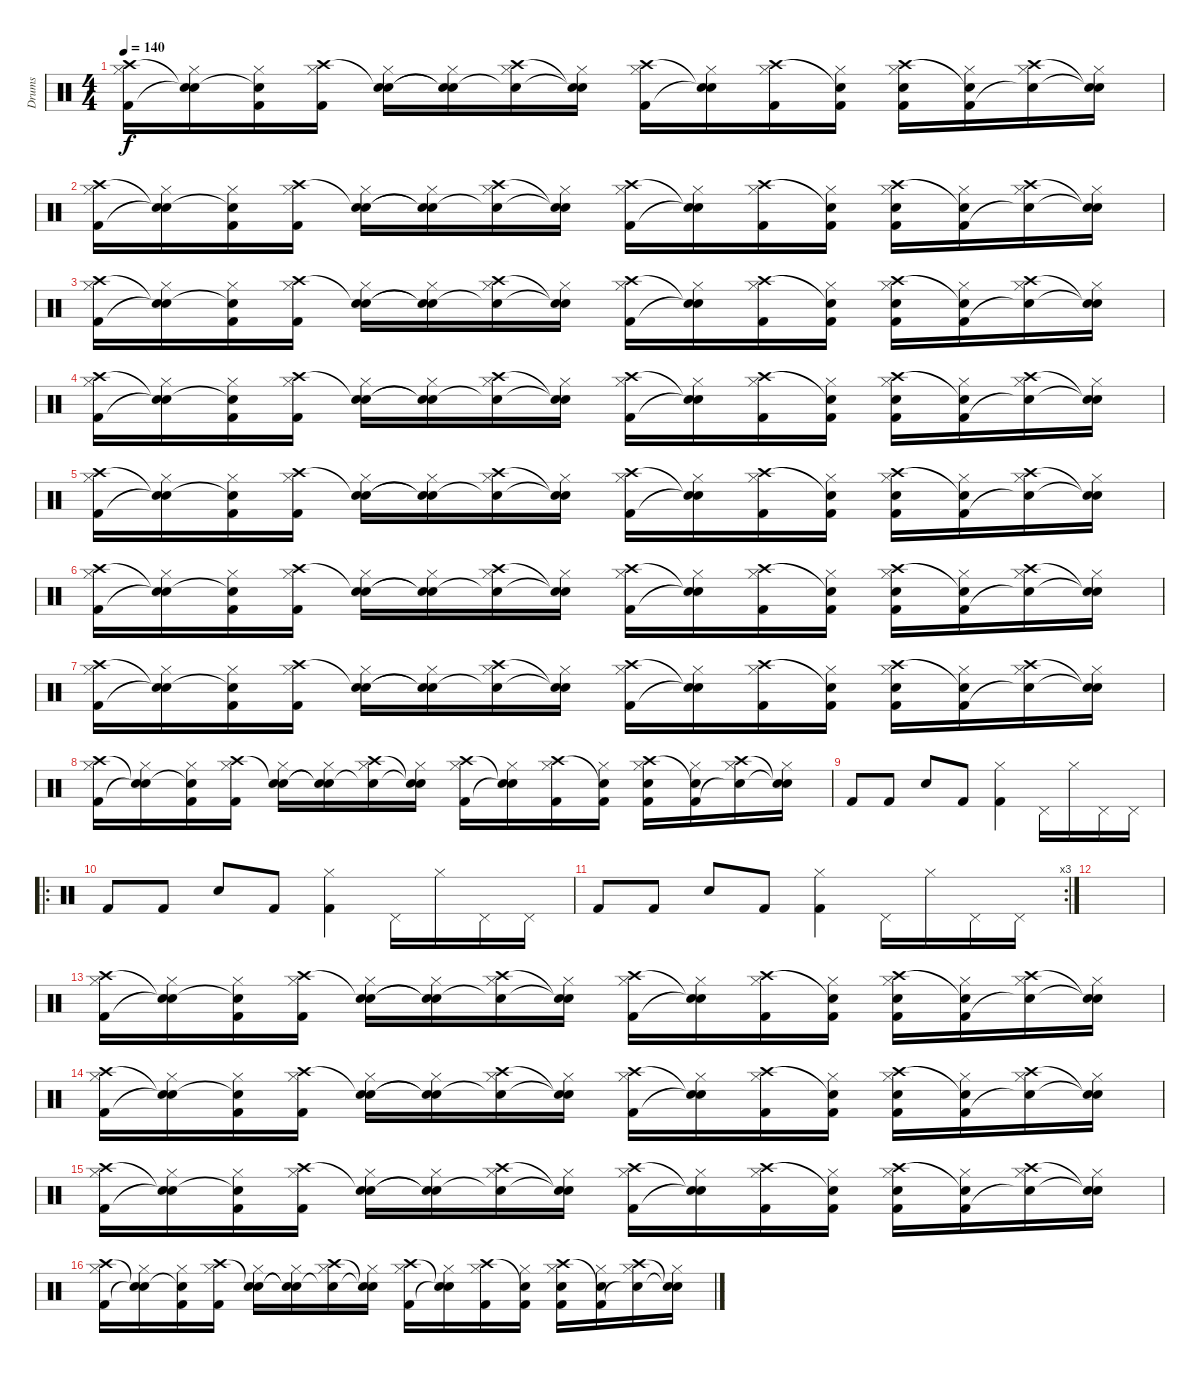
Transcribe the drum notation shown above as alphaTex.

\track ("Drums" "Drums") {instrument percussion}
\staff {score}
\articulation defaults
\ts (4 4)
\tempo 140
\clef neutral
\ks c
("Crash high (hit)" "Hi-Hat (closed)" "Kick (hit) 2").16{dy f} ("Snare (hit)"{t} "Hi-Hat (closed)" "Snare (hit)"{t}).16 ("Snare (hit)"{t} "Hi-Hat (closed)" "Kick (hit) 2").16 ("Crash high (hit)" "Hi-Hat (closed)" "Kick (hit) 2").16 ("Snare (hit)"{t} "Hi-Hat (closed)" "Electric Snare (hit)").16 ("Snare (hit)"{t} "Hi-Hat (closed)" "Snare (hit)"{t}).16 ("Crash high (hit)" "Hi-Hat (closed)" "Snare (hit)"{t}).16 ("Snare (hit)"{t} "Hi-Hat (closed)" "Snare (hit)"{t}).16 ("Crash high (hit)" "Hi-Hat (closed)" "Kick (hit) 2").16 ("Snare (hit)"{t} "Hi-Hat (closed)" "Snare (hit)"{t}).16 ("Crash high (hit)" "Hi-Hat (closed)" "Kick (hit) 2").16 ("Snare (hit)"{t} "Hi-Hat (closed)" "Kick (hit) 2").16 ("Crash high (hit)" "Hi-Hat (closed)" "Snare (hit) 2" "Kick (hit) 2").16 ("Snare (hit)"{t} "Hi-Hat (closed)" "Kick (hit) 2").16 ("Crash high (hit)" "Hi-Hat (closed)" "Snare (hit)"{t}).16 ("Snare (hit)"{t} "Hi-Hat (closed)" "Snare (hit)"{t}).16 |
("Crash high (hit)" "Hi-Hat (closed)" "Kick (hit) 2").16 ("Snare (hit)"{t} "Hi-Hat (closed)" "Snare (hit)"{t}).16 ("Snare (hit)"{t} "Hi-Hat (closed)" "Kick (hit) 2").16 ("Crash high (hit)" "Hi-Hat (closed)" "Kick (hit) 2").16 ("Snare (hit)"{t} "Hi-Hat (closed)" "Electric Snare (hit)").16 ("Snare (hit)"{t} "Hi-Hat (closed)" "Snare (hit)"{t}).16 ("Crash high (hit)" "Hi-Hat (closed)" "Snare (hit)"{t}).16 ("Snare (hit)"{t} "Hi-Hat (closed)" "Snare (hit)"{t}).16 ("Crash high (hit)" "Hi-Hat (closed)" "Kick (hit) 2").16 ("Snare (hit)"{t} "Hi-Hat (closed)" "Snare (hit)"{t}).16 ("Crash high (hit)" "Hi-Hat (closed)" "Kick (hit) 2").16 ("Snare (hit)"{t} "Hi-Hat (closed)" "Kick (hit) 2").16 ("Crash high (hit)" "Hi-Hat (closed)" "Snare (hit) 2" "Kick (hit) 2").16 ("Snare (hit)"{t} "Hi-Hat (closed)" "Kick (hit) 2").16 ("Crash high (hit)" "Hi-Hat (closed)" "Snare (hit)"{t}).16 ("Snare (hit)"{t} "Hi-Hat (closed)" "Snare (hit)"{t}).16 |
("Crash high (hit)" "Hi-Hat (closed)" "Kick (hit) 2").16 ("Snare (hit)"{t} "Hi-Hat (closed)" "Snare (hit)"{t}).16 ("Snare (hit)"{t} "Hi-Hat (closed)" "Kick (hit) 2").16 ("Crash high (hit)" "Hi-Hat (closed)" "Kick (hit) 2").16 ("Snare (hit)"{t} "Hi-Hat (closed)" "Electric Snare (hit)").16 ("Snare (hit)"{t} "Hi-Hat (closed)" "Snare (hit)"{t}).16 ("Crash high (hit)" "Hi-Hat (closed)" "Snare (hit)"{t}).16 ("Snare (hit)"{t} "Hi-Hat (closed)" "Snare (hit)"{t}).16 ("Crash high (hit)" "Hi-Hat (closed)" "Kick (hit) 2").16 ("Snare (hit)"{t} "Hi-Hat (closed)" "Snare (hit)"{t}).16 ("Crash high (hit)" "Hi-Hat (closed)" "Kick (hit) 2").16 ("Snare (hit)"{t} "Hi-Hat (closed)" "Kick (hit) 2").16 ("Crash high (hit)" "Hi-Hat (closed)" "Snare (hit) 2" "Kick (hit) 2").16 ("Snare (hit)"{t} "Hi-Hat (closed)" "Kick (hit) 2").16 ("Crash high (hit)" "Hi-Hat (closed)" "Snare (hit)"{t}).16 ("Snare (hit)"{t} "Hi-Hat (closed)" "Snare (hit)"{t}).16 |
("Crash high (hit)" "Hi-Hat (closed)" "Kick (hit) 2").16 ("Snare (hit)"{t} "Hi-Hat (closed)" "Snare (hit)"{t}).16 ("Snare (hit)"{t} "Hi-Hat (closed)" "Kick (hit) 2").16 ("Crash high (hit)" "Hi-Hat (closed)" "Kick (hit) 2").16 ("Snare (hit)"{t} "Hi-Hat (closed)" "Electric Snare (hit)").16 ("Snare (hit)"{t} "Hi-Hat (closed)" "Snare (hit)"{t}).16 ("Crash high (hit)" "Hi-Hat (closed)" "Snare (hit)"{t}).16 ("Snare (hit)"{t} "Hi-Hat (closed)" "Snare (hit)"{t}).16 ("Crash high (hit)" "Hi-Hat (closed)" "Kick (hit) 2").16 ("Snare (hit)"{t} "Hi-Hat (closed)" "Snare (hit)"{t}).16 ("Crash high (hit)" "Hi-Hat (closed)" "Kick (hit) 2").16 ("Snare (hit)"{t} "Hi-Hat (closed)" "Kick (hit) 2").16 ("Crash high (hit)" "Hi-Hat (closed)" "Snare (hit) 2" "Kick (hit) 2").16 ("Snare (hit)"{t} "Hi-Hat (closed)" "Kick (hit) 2").16 ("Crash high (hit)" "Hi-Hat (closed)" "Snare (hit)"{t}).16 ("Snare (hit)"{t} "Hi-Hat (closed)" "Snare (hit)"{t}).16 |
("Crash high (hit)" "Hi-Hat (closed)" "Kick (hit) 2").16 ("Snare (hit)"{t} "Hi-Hat (closed)" "Snare (hit)"{t}).16 ("Snare (hit)"{t} "Hi-Hat (closed)" "Kick (hit) 2").16 ("Crash high (hit)" "Hi-Hat (closed)" "Kick (hit) 2").16 ("Snare (hit)"{t} "Hi-Hat (closed)" "Electric Snare (hit)").16 ("Snare (hit)"{t} "Hi-Hat (closed)" "Snare (hit)"{t}).16 ("Crash high (hit)" "Hi-Hat (closed)" "Snare (hit)"{t}).16 ("Snare (hit)"{t} "Hi-Hat (closed)" "Snare (hit)"{t}).16 ("Crash high (hit)" "Hi-Hat (closed)" "Kick (hit) 2").16 ("Snare (hit)"{t} "Hi-Hat (closed)" "Snare (hit)"{t}).16 ("Crash high (hit)" "Hi-Hat (closed)" "Kick (hit) 2").16 ("Snare (hit)"{t} "Hi-Hat (closed)" "Kick (hit) 2").16 ("Crash high (hit)" "Hi-Hat (closed)" "Snare (hit) 2" "Kick (hit) 2").16 ("Snare (hit)"{t} "Hi-Hat (closed)" "Kick (hit) 2").16 ("Crash high (hit)" "Hi-Hat (closed)" "Snare (hit)"{t}).16 ("Snare (hit)"{t} "Hi-Hat (closed)" "Snare (hit)"{t}).16 |
("Crash high (hit)" "Hi-Hat (closed)" "Kick (hit) 2").16 ("Snare (hit)"{t} "Hi-Hat (closed)" "Snare (hit)"{t}).16 ("Snare (hit)"{t} "Hi-Hat (closed)" "Kick (hit) 2").16 ("Crash high (hit)" "Hi-Hat (closed)" "Kick (hit) 2").16 ("Snare (hit)"{t} "Hi-Hat (closed)" "Electric Snare (hit)").16 ("Snare (hit)"{t} "Hi-Hat (closed)" "Snare (hit)"{t}).16 ("Crash high (hit)" "Hi-Hat (closed)" "Snare (hit)"{t}).16 ("Snare (hit)"{t} "Hi-Hat (closed)" "Snare (hit)"{t}).16 ("Crash high (hit)" "Hi-Hat (closed)" "Kick (hit) 2").16 ("Snare (hit)"{t} "Hi-Hat (closed)" "Snare (hit)"{t}).16 ("Crash high (hit)" "Hi-Hat (closed)" "Kick (hit) 2").16 ("Snare (hit)"{t} "Hi-Hat (closed)" "Kick (hit) 2").16 ("Crash high (hit)" "Hi-Hat (closed)" "Snare (hit) 2" "Kick (hit) 2").16 ("Snare (hit)"{t} "Hi-Hat (closed)" "Kick (hit) 2").16 ("Crash high (hit)" "Hi-Hat (closed)" "Snare (hit)"{t}).16 ("Snare (hit)"{t} "Hi-Hat (closed)" "Snare (hit)"{t}).16 |
("Crash high (hit)" "Hi-Hat (closed)" "Kick (hit) 2").16 ("Snare (hit)"{t} "Hi-Hat (closed)" "Snare (hit)"{t}).16 ("Snare (hit)"{t} "Hi-Hat (closed)" "Kick (hit) 2").16 ("Crash high (hit)" "Hi-Hat (closed)" "Kick (hit) 2").16 ("Snare (hit)"{t} "Hi-Hat (closed)" "Electric Snare (hit)").16 ("Snare (hit)"{t} "Hi-Hat (closed)" "Snare (hit)"{t}).16 ("Crash high (hit)" "Hi-Hat (closed)" "Snare (hit)"{t}).16 ("Snare (hit)"{t} "Hi-Hat (closed)" "Snare (hit)"{t}).16 ("Crash high (hit)" "Hi-Hat (closed)" "Kick (hit) 2").16 ("Snare (hit)"{t} "Hi-Hat (closed)" "Snare (hit)"{t}).16 ("Crash high (hit)" "Hi-Hat (closed)" "Kick (hit) 2").16 ("Snare (hit)"{t} "Hi-Hat (closed)" "Kick (hit) 2").16 ("Crash high (hit)" "Hi-Hat (closed)" "Snare (hit) 2" "Kick (hit) 2").16 ("Snare (hit)"{t} "Hi-Hat (closed)" "Kick (hit) 2").16 ("Crash high (hit)" "Hi-Hat (closed)" "Snare (hit)"{t}).16 ("Snare (hit)"{t} "Hi-Hat (closed)" "Snare (hit)"{t}).16 |
("Crash high (hit)" "Hi-Hat (closed)" "Kick (hit) 2").16 ("Snare (hit)"{t} "Hi-Hat (closed)" "Snare (hit)"{t}).16 ("Snare (hit)"{t} "Hi-Hat (closed)" "Kick (hit) 2").16 ("Crash high (hit)" "Hi-Hat (closed)" "Kick (hit) 2").16 ("Snare (hit)"{t} "Hi-Hat (closed)" "Electric Snare (hit)").16 ("Snare (hit)"{t} "Hi-Hat (closed)" "Snare (hit)"{t}).16 ("Crash high (hit)" "Hi-Hat (closed)" "Snare (hit)"{t}).16 ("Snare (hit)"{t} "Hi-Hat (closed)" "Snare (hit)"{t}).16 ("Crash high (hit)" "Hi-Hat (closed)" "Kick (hit) 2").16 ("Snare (hit)"{t} "Hi-Hat (closed)" "Snare (hit)"{t}).16 ("Crash high (hit)" "Hi-Hat (closed)" "Kick (hit) 2").16 ("Snare (hit)"{t} "Hi-Hat (closed)" "Kick (hit) 2").16 ("Crash high (hit)" "Hi-Hat (closed)" "Snare (hit) 2" "Kick (hit) 2").16 ("Snare (hit)"{t} "Hi-Hat (closed)" "Kick (hit) 2").16 ("Crash high (hit)" "Hi-Hat (closed)" "Snare (hit)"{t}).16 ("Snare (hit)"{t} "Hi-Hat (closed)" "Snare (hit)"{t}).16 |
"Kick (hit) 2".8 "Kick (hit) 2".8 "Snare (hit) 2".8 "Kick (hit) 2".8 ("Hi-Hat (closed)" "Kick (hit) 2").4 "Pedal Hi-Hat (hit)".16 "Hi-Hat (closed)".16 "Pedal Hi-Hat (hit)".16 "Pedal Hi-Hat (hit)".16 |
\ro "Kick (hit) 2".8 "Kick (hit) 2".8 "Snare (hit) 2".8 "Kick (hit) 2".8
("Hi-Hat (closed)" "Kick (hit) 2").4 "Pedal Hi-Hat (hit)".16 "Hi-Hat (closed)".16 "Pedal Hi-Hat (hit)".16 "Pedal Hi-Hat (hit)".16 |
\rc 3 "Kick (hit) 2".8 "Kick (hit) 2".8 "Snare (hit) 2".8 "Kick (hit) 2".8
("Hi-Hat (closed)" "Kick (hit) 2").4 "Pedal Hi-Hat (hit)".16 "Hi-Hat (closed)".16 "Pedal Hi-Hat (hit)".16 "Pedal Hi-Hat (hit)".16 |
|
("Crash high (hit)" "Hi-Hat (closed)" "Kick (hit) 2").16 ("Snare (hit)"{t} "Hi-Hat (closed)" "Snare (hit)"{t}).16 ("Snare (hit)"{t} "Hi-Hat (closed)" "Kick (hit) 2").16 ("Crash high (hit)" "Hi-Hat (closed)" "Kick (hit) 2").16 ("Snare (hit)"{t} "Hi-Hat (closed)" "Electric Snare (hit)").16 ("Snare (hit)"{t} "Hi-Hat (closed)" "Snare (hit)"{t}).16 ("Crash high (hit)" "Hi-Hat (closed)" "Snare (hit)"{t}).16 ("Snare (hit)"{t} "Hi-Hat (closed)" "Snare (hit)"{t}).16 ("Crash high (hit)" "Hi-Hat (closed)" "Kick (hit) 2").16 ("Snare (hit)"{t} "Hi-Hat (closed)" "Snare (hit)"{t}).16 ("Crash high (hit)" "Hi-Hat (closed)" "Kick (hit) 2").16 ("Snare (hit)"{t} "Hi-Hat (closed)" "Kick (hit) 2").16 ("Crash high (hit)" "Hi-Hat (closed)" "Snare (hit) 2" "Kick (hit) 2").16 ("Snare (hit)"{t} "Hi-Hat (closed)" "Kick (hit) 2").16 ("Crash high (hit)" "Hi-Hat (closed)" "Snare (hit)"{t}).16 ("Snare (hit)"{t} "Hi-Hat (closed)" "Snare (hit)"{t}).16 |
("Crash high (hit)" "Hi-Hat (closed)" "Kick (hit) 2").16 ("Snare (hit)"{t} "Hi-Hat (closed)" "Snare (hit)"{t}).16 ("Snare (hit)"{t} "Hi-Hat (closed)" "Kick (hit) 2").16 ("Crash high (hit)" "Hi-Hat (closed)" "Kick (hit) 2").16 ("Snare (hit)"{t} "Hi-Hat (closed)" "Electric Snare (hit)").16 ("Snare (hit)"{t} "Hi-Hat (closed)" "Snare (hit)"{t}).16 ("Crash high (hit)" "Hi-Hat (closed)" "Snare (hit)"{t}).16 ("Snare (hit)"{t} "Hi-Hat (closed)" "Snare (hit)"{t}).16 ("Crash high (hit)" "Hi-Hat (closed)" "Kick (hit) 2").16 ("Snare (hit)"{t} "Hi-Hat (closed)" "Snare (hit)"{t}).16 ("Crash high (hit)" "Hi-Hat (closed)" "Kick (hit) 2").16 ("Snare (hit)"{t} "Hi-Hat (closed)" "Kick (hit) 2").16 ("Crash high (hit)" "Hi-Hat (closed)" "Snare (hit) 2" "Kick (hit) 2").16 ("Snare (hit)"{t} "Hi-Hat (closed)" "Kick (hit) 2").16 ("Crash high (hit)" "Hi-Hat (closed)" "Snare (hit)"{t}).16 ("Snare (hit)"{t} "Hi-Hat (closed)" "Snare (hit)"{t}).16 |
("Crash high (hit)" "Hi-Hat (closed)" "Kick (hit) 2").16 ("Snare (hit)"{t} "Hi-Hat (closed)" "Snare (hit)"{t}).16 ("Snare (hit)"{t} "Hi-Hat (closed)" "Kick (hit) 2").16 ("Crash high (hit)" "Hi-Hat (closed)" "Kick (hit) 2").16 ("Snare (hit)"{t} "Hi-Hat (closed)" "Electric Snare (hit)").16 ("Snare (hit)"{t} "Hi-Hat (closed)" "Snare (hit)"{t}).16 ("Crash high (hit)" "Hi-Hat (closed)" "Snare (hit)"{t}).16 ("Snare (hit)"{t} "Hi-Hat (closed)" "Snare (hit)"{t}).16 ("Crash high (hit)" "Hi-Hat (closed)" "Kick (hit) 2").16 ("Snare (hit)"{t} "Hi-Hat (closed)" "Snare (hit)"{t}).16 ("Crash high (hit)" "Hi-Hat (closed)" "Kick (hit) 2").16 ("Snare (hit)"{t} "Hi-Hat (closed)" "Kick (hit) 2").16 ("Crash high (hit)" "Hi-Hat (closed)" "Snare (hit) 2" "Kick (hit) 2").16 ("Snare (hit)"{t} "Hi-Hat (closed)" "Kick (hit) 2").16 ("Crash high (hit)" "Hi-Hat (closed)" "Snare (hit)"{t}).16 ("Snare (hit)"{t} "Hi-Hat (closed)" "Snare (hit)"{t}).16 |
("Crash high (hit)" "Hi-Hat (closed)" "Kick (hit) 2").16 ("Snare (hit)"{t} "Hi-Hat (closed)" "Snare (hit)"{t}).16 ("Snare (hit)"{t} "Hi-Hat (closed)" "Kick (hit) 2").16 ("Crash high (hit)" "Hi-Hat (closed)" "Kick (hit) 2").16 ("Snare (hit)"{t} "Hi-Hat (closed)" "Electric Snare (hit)").16 ("Snare (hit)"{t} "Hi-Hat (closed)" "Snare (hit)"{t}).16 ("Crash high (hit)" "Hi-Hat (closed)" "Snare (hit)"{t}).16 ("Snare (hit)"{t} "Hi-Hat (closed)" "Snare (hit)"{t}).16 ("Crash high (hit)" "Hi-Hat (closed)" "Kick (hit) 2").16 ("Snare (hit)"{t} "Hi-Hat (closed)" "Snare (hit)"{t}).16 ("Crash high (hit)" "Hi-Hat (closed)" "Kick (hit) 2").16 ("Snare (hit)"{t} "Hi-Hat (closed)" "Kick (hit) 2").16 ("Crash high (hit)" "Hi-Hat (closed)" "Snare (hit) 2" "Kick (hit) 2").16 ("Snare (hit)"{t} "Hi-Hat (closed)" "Kick (hit) 2").16 ("Crash high (hit)" "Hi-Hat (closed)" "Snare (hit)"{t}).16 ("Snare (hit)"{t} "Hi-Hat (closed)" "Snare (hit)"{t}).16
